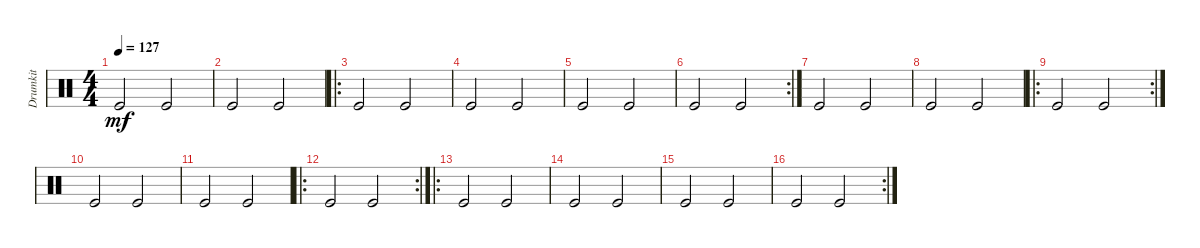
\track ("Drumkit" "Drumkit") {instrument percussion}
\staff {score}
\articulation defaults
\ts (4 4)
\tempo 127
\clef neutral
\ks c "Kick (hit)".2{dy mf} "Kick (hit)".2
|
"Kick (hit)".2 "Kick (hit)".2 |
\ro "Kick (hit)".2 "Kick (hit)".2
|
"Kick (hit)".2 "Kick (hit)".2 |
"Kick (hit)".2 "Kick (hit)".2 |
\rc 2 "Kick (hit)".2 "Kick (hit)".2
|
"Kick (hit)".2 "Kick (hit)".2 |
"Kick (hit)".2 "Kick (hit)".2 |
\ro
\rc 2 "Kick (hit)".2 "Kick (hit)".2
|
"Kick (hit)".2 "Kick (hit)".2 |
"Kick (hit)".2 "Kick (hit)".2 |
\ro
\rc 2 "Kick (hit)".2 "Kick (hit)".2
|
\ro "Kick (hit)".2 "Kick (hit)".2
|
"Kick (hit)".2 "Kick (hit)".2 |
"Kick (hit)".2 "Kick (hit)".2 |
\rc 2 "Kick (hit)".2 "Kick (hit)".2
